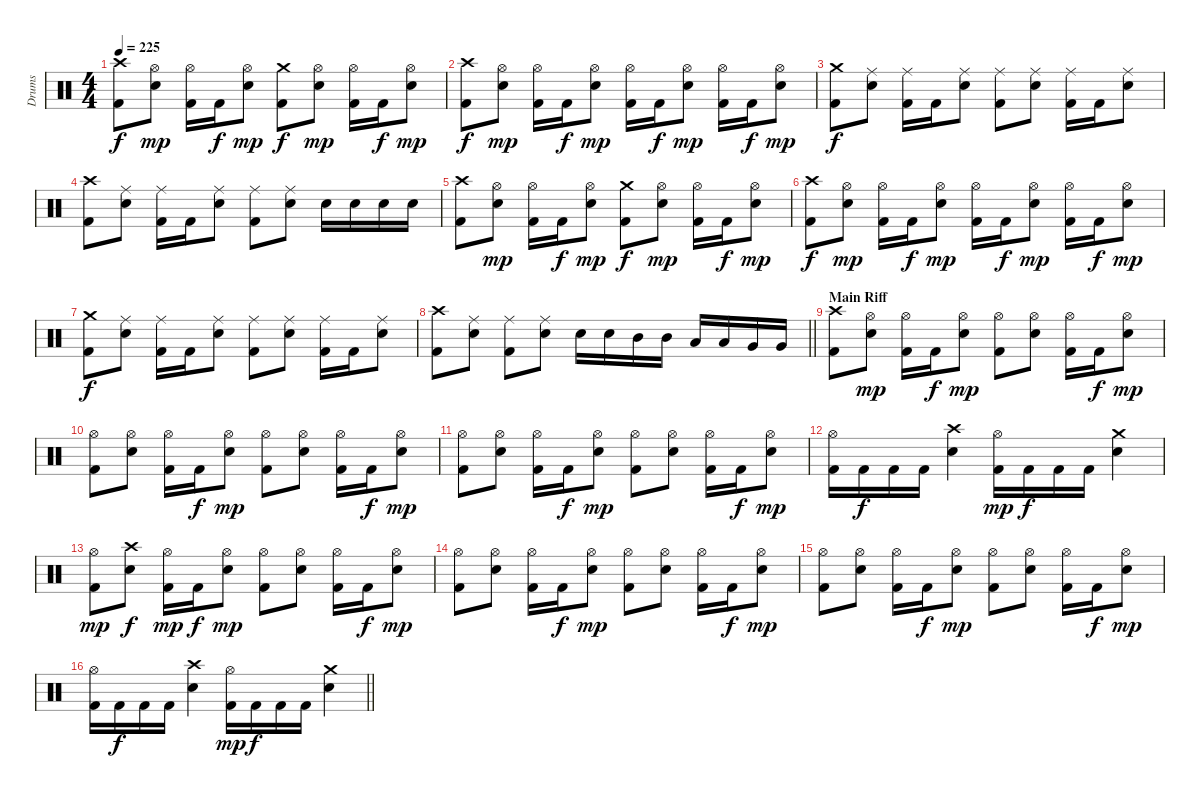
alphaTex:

\track ("Drums" "Drums") {instrument percussion}
\staff {score}
\articulation defaults
\ts (4 4)
\tempo 225
\clef neutral
\ks c
("Crash high (hit)" "Kick (hit) 2").8{dy f} ("Hi-Hat (open)" "Snare (hit) 2").8{dy mp} ("Hi-Hat (open)" "Kick (hit) 2").16 "Kick (hit) 2".16{dy f} ("Hi-Hat (open)" "Snare (hit) 2").8{dy mp} ("Crash medium (hit)" "Kick (hit) 2").8{dy f} ("Hi-Hat (open)" "Snare (hit) 2").8{dy mp} ("Hi-Hat (open)" "Kick (hit) 2").16 "Kick (hit) 2".16{dy f} ("Hi-Hat (open)" "Snare (hit) 2").8{dy mp} |
("Crash high (hit)" "Kick (hit) 2").8{dy f} ("Hi-Hat (open)" "Snare (hit) 2").8{dy mp} ("Hi-Hat (open)" "Kick (hit) 2").16 "Kick (hit) 2".16{dy f} ("Hi-Hat (open)" "Snare (hit) 2").8{dy mp} ("Hi-Hat (open)" "Kick (hit) 2").16 "Kick (hit) 2".16{dy f} ("Hi-Hat (open)" "Snare (hit) 2").8{dy mp} ("Hi-Hat (open)" "Kick (hit) 2").16 "Kick (hit) 2".16{dy f} ("Hi-Hat (open)" "Snare (hit) 2").8{dy mp} |
("Crash medium (hit)" "Kick (hit) 2").8{dy f} ("Ride (middle)" "Snare (hit) 2").8 ("Ride (middle)" "Kick (hit) 2").16 "Kick (hit) 2".16 ("Ride (middle)" "Snare (hit) 2").8 ("Ride (middle)" "Kick (hit) 2").8 ("Ride (middle)" "Snare (hit) 2").8 ("Ride (middle)" "Kick (hit) 2").16 "Kick (hit) 2".16 ("Ride (middle)" "Snare (hit) 2").8 |
("Crash high (hit)" "Kick (hit) 2").8 ("Ride (middle)" "Snare (hit) 2").8 ("Ride (middle)" "Kick (hit) 2").16 "Kick (hit) 2".16 ("Ride (middle)" "Snare (hit) 2").8 ("Ride (middle)" "Kick (hit) 2").8 ("Ride (middle)" "Snare (hit) 2").8 "Snare (hit) 2".16 "Snare (hit) 2".16 "Snare (hit) 2".16 "Snare (hit) 2".16 |
("Crash high (hit)" "Kick (hit) 2").8 ("Hi-Hat (open)" "Snare (hit) 2").8{dy mp} ("Hi-Hat (open)" "Kick (hit) 2").16 "Kick (hit) 2".16{dy f} ("Hi-Hat (open)" "Snare (hit) 2").8{dy mp} ("Crash medium (hit)" "Kick (hit) 2").8{dy f} ("Hi-Hat (open)" "Snare (hit) 2").8{dy mp} ("Hi-Hat (open)" "Kick (hit) 2").16 "Kick (hit) 2".16{dy f} ("Hi-Hat (open)" "Snare (hit) 2").8{dy mp} |
("Crash high (hit)" "Kick (hit) 2").8{dy f} ("Hi-Hat (open)" "Snare (hit) 2").8{dy mp} ("Hi-Hat (open)" "Kick (hit) 2").16 "Kick (hit) 2".16{dy f} ("Hi-Hat (open)" "Snare (hit) 2").8{dy mp} ("Hi-Hat (open)" "Kick (hit) 2").16 "Kick (hit) 2".16{dy f} ("Hi-Hat (open)" "Snare (hit) 2").8{dy mp} ("Hi-Hat (open)" "Kick (hit) 2").16 "Kick (hit) 2".16{dy f} ("Hi-Hat (open)" "Snare (hit) 2").8{dy mp} |
("Crash medium (hit)" "Kick (hit) 2").8{dy f} ("Ride (middle)" "Snare (hit) 2").8 ("Ride (middle)" "Kick (hit) 2").16 "Kick (hit) 2".16 ("Ride (middle)" "Snare (hit) 2").8 ("Ride (middle)" "Kick (hit) 2").8 ("Ride (middle)" "Snare (hit) 2").8 ("Ride (middle)" "Kick (hit) 2").16 "Kick (hit) 2".16 ("Ride (middle)" "Snare (hit) 2").8 |
\barLineRight lightlight
("Crash high (hit)" "Kick (hit) 2").8 ("Ride (middle)" "Snare (hit) 2").8 ("Ride (middle)" "Kick (hit) 2").8 ("Ride (middle)" "Snare (hit) 2").8 "Snare (hit) 2".16 "Snare (hit) 2".16 "Mid Tom (hit)".16 "Mid Tom (hit)".16 "Low Tom (hit)".16 "Low Tom (hit)".16 "Very Low Tom (hit)".16 "Very Low Tom (hit)".16 |
\section ("" "Main Riff")
("Crash high (hit)" "Kick (hit) 2").8 ("Hi-Hat (open)" "Snare (hit) 2").8{dy mp} ("Hi-Hat (open)" "Kick (hit) 2").16 "Kick (hit) 2".16{dy f} ("Hi-Hat (open)" "Snare (hit) 2").8{dy mp} ("Hi-Hat (open)" "Kick (hit) 2").8 ("Hi-Hat (open)" "Snare (hit) 2").8 ("Hi-Hat (open)" "Kick (hit) 2").16 "Kick (hit) 2".16{dy f} ("Hi-Hat (open)" "Snare (hit) 2").8{dy mp} |
("Hi-Hat (open)" "Kick (hit) 2").8 ("Hi-Hat (open)" "Snare (hit) 2").8 ("Hi-Hat (open)" "Kick (hit) 2").16 "Kick (hit) 2".16{dy f} ("Hi-Hat (open)" "Snare (hit) 2").8{dy mp} ("Hi-Hat (open)" "Kick (hit) 2").8 ("Hi-Hat (open)" "Snare (hit) 2").8 ("Hi-Hat (open)" "Kick (hit) 2").16 "Kick (hit) 2".16{dy f} ("Hi-Hat (open)" "Snare (hit) 2").8{dy mp} |
("Hi-Hat (open)" "Kick (hit) 2").8 ("Hi-Hat (open)" "Snare (hit) 2").8 ("Hi-Hat (open)" "Kick (hit) 2").16 "Kick (hit) 2".16{dy f} ("Hi-Hat (open)" "Snare (hit) 2").8{dy mp} ("Hi-Hat (open)" "Kick (hit) 2").8 ("Hi-Hat (open)" "Snare (hit) 2").8 ("Hi-Hat (open)" "Kick (hit) 2").16 "Kick (hit) 2".16{dy f} ("Hi-Hat (open)" "Snare (hit) 2").8{dy mp} |
("Hi-Hat (open)" "Kick (hit) 2").16 "Kick (hit) 2".16{dy f} "Kick (hit) 2".16 "Kick (hit) 2".16 ("Crash high (hit)" "Snare (hit) 2").4 ("Hi-Hat (open)" "Kick (hit) 2").16{dy mp} "Kick (hit) 2".16{dy f} "Kick (hit) 2".16 "Kick (hit) 2".16 ("Crash medium (hit)" "Snare (hit) 2").4 |
("Hi-Hat (open)" "Kick (hit) 2").8{dy mp} ("Crash high (hit)" "Snare (hit) 2").8{dy f} ("Hi-Hat (open)" "Kick (hit) 2").16{dy mp} "Kick (hit) 2".16{dy f} ("Hi-Hat (open)" "Snare (hit) 2").8{dy mp} ("Hi-Hat (open)" "Kick (hit) 2").8 ("Hi-Hat (open)" "Snare (hit) 2").8 ("Hi-Hat (open)" "Kick (hit) 2").16 "Kick (hit) 2".16{dy f} ("Hi-Hat (open)" "Snare (hit) 2").8{dy mp} |
("Hi-Hat (open)" "Kick (hit) 2").8 ("Hi-Hat (open)" "Snare (hit) 2").8 ("Hi-Hat (open)" "Kick (hit) 2").16 "Kick (hit) 2".16{dy f} ("Hi-Hat (open)" "Snare (hit) 2").8{dy mp} ("Hi-Hat (open)" "Kick (hit) 2").8 ("Hi-Hat (open)" "Snare (hit) 2").8 ("Hi-Hat (open)" "Kick (hit) 2").16 "Kick (hit) 2".16{dy f} ("Hi-Hat (open)" "Snare (hit) 2").8{dy mp} |
("Hi-Hat (open)" "Kick (hit) 2").8 ("Hi-Hat (open)" "Snare (hit) 2").8 ("Hi-Hat (open)" "Kick (hit) 2").16 "Kick (hit) 2".16{dy f} ("Hi-Hat (open)" "Snare (hit) 2").8{dy mp} ("Hi-Hat (open)" "Kick (hit) 2").8 ("Hi-Hat (open)" "Snare (hit) 2").8 ("Hi-Hat (open)" "Kick (hit) 2").16 "Kick (hit) 2".16{dy f} ("Hi-Hat (open)" "Snare (hit) 2").8{dy mp} |
\barLineRight lightlight
("Hi-Hat (open)" "Kick (hit) 2").16 "Kick (hit) 2".16{dy f} "Kick (hit) 2".16 "Kick (hit) 2".16 ("Crash high (hit)" "Snare (hit) 2").4 ("Hi-Hat (open)" "Kick (hit) 2").16{dy mp} "Kick (hit) 2".16{dy f} "Kick (hit) 2".16 "Kick (hit) 2".16 ("Crash medium (hit)" "Snare (hit) 2").4
